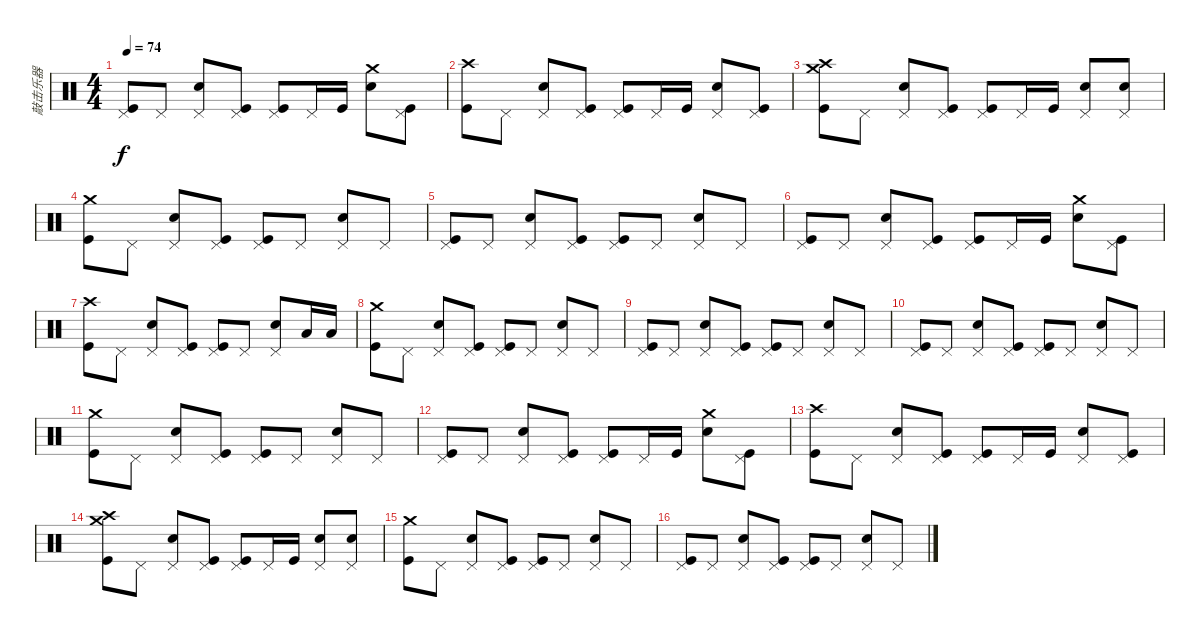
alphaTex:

\track ("敲击乐器" "敲击乐器") {instrument percussion}
\staff {score}
\articulation defaults
\ts (4 4)
\tempo 74
\clef neutral
\ks c
("Pedal Hi-Hat (hit)" "Kick (hit)").8{dy f} "Pedal Hi-Hat (hit)".8 ("Pedal Hi-Hat (hit)" "Snare (hit) 2").8 ("Pedal Hi-Hat (hit)" "Kick (hit)").8 ("Pedal Hi-Hat (hit)" "Kick (hit)").8 "Pedal Hi-Hat (hit)".16 "Kick (hit)".16 ("Crash medium (hit)" "Snare (hit) 2").8 ("Pedal Hi-Hat (hit)" "Kick (hit)").8 |
("Crash high (hit)" "Kick (hit)").8 "Pedal Hi-Hat (hit)".8 ("Pedal Hi-Hat (hit)" "Snare (hit) 2").8 ("Pedal Hi-Hat (hit)" "Kick (hit)").8 ("Pedal Hi-Hat (hit)" "Kick (hit)").8 "Pedal Hi-Hat (hit)".16 "Kick (hit)".16 ("Pedal Hi-Hat (hit)" "Snare (hit) 2").8 ("Pedal Hi-Hat (hit)" "Kick (hit)").8 |
("Crash medium (hit)" "Crash high (hit)" "Kick (hit)").8 "Pedal Hi-Hat (hit)".8 ("Pedal Hi-Hat (hit)" "Snare (hit) 2").8 ("Pedal Hi-Hat (hit)" "Kick (hit)").8 ("Pedal Hi-Hat (hit)" "Kick (hit)").8 "Pedal Hi-Hat (hit)".16 "Kick (hit)".16 ("Pedal Hi-Hat (hit)" "Snare (hit) 2").8 ("Pedal Hi-Hat (hit)" "Snare (hit) 2").8 |
("Crash medium (hit)" "Kick (hit)").8 "Pedal Hi-Hat (hit)".8 ("Pedal Hi-Hat (hit)" "Snare (hit) 2").8 ("Pedal Hi-Hat (hit)" "Kick (hit)").8 ("Pedal Hi-Hat (hit)" "Kick (hit)").8 "Pedal Hi-Hat (hit)".8 ("Pedal Hi-Hat (hit)" "Snare (hit) 2").8 "Pedal Hi-Hat (hit)".8 |
("Pedal Hi-Hat (hit)" "Kick (hit)").8 "Pedal Hi-Hat (hit)".8 ("Pedal Hi-Hat (hit)" "Snare (hit) 2").8 ("Pedal Hi-Hat (hit)" "Kick (hit)").8 ("Pedal Hi-Hat (hit)" "Kick (hit)").8 "Pedal Hi-Hat (hit)".8 ("Pedal Hi-Hat (hit)" "Snare (hit) 2").8 "Pedal Hi-Hat (hit)".8 |
("Pedal Hi-Hat (hit)" "Kick (hit)").8 "Pedal Hi-Hat (hit)".8 ("Pedal Hi-Hat (hit)" "Snare (hit) 2").8 ("Pedal Hi-Hat (hit)" "Kick (hit)").8 ("Pedal Hi-Hat (hit)" "Kick (hit)").8 "Pedal Hi-Hat (hit)".16 "Kick (hit)".16 ("Crash medium (hit)" "Snare (hit) 2").8 ("Pedal Hi-Hat (hit)" "Kick (hit)").8 |
("Crash high (hit)" "Kick (hit)").8 "Pedal Hi-Hat (hit)".8 ("Pedal Hi-Hat (hit)" "Snare (hit) 2").8 ("Pedal Hi-Hat (hit)" "Kick (hit)").8 ("Pedal Hi-Hat (hit)" "Kick (hit)").8 "Pedal Hi-Hat (hit)".8 ("Pedal Hi-Hat (hit)" "Snare (hit) 2").8 "Low Tom (hit)".16 "Low Tom (hit)".16 |
("Crash medium (hit)" "Kick (hit)").8 "Pedal Hi-Hat (hit)".8 ("Pedal Hi-Hat (hit)" "Snare (hit) 2").8 ("Pedal Hi-Hat (hit)" "Kick (hit)").8 ("Pedal Hi-Hat (hit)" "Kick (hit)").8 "Pedal Hi-Hat (hit)".8 ("Pedal Hi-Hat (hit)" "Snare (hit) 2").8 "Pedal Hi-Hat (hit)".8 |
("Pedal Hi-Hat (hit)" "Kick (hit)").8 "Pedal Hi-Hat (hit)".8 ("Pedal Hi-Hat (hit)" "Snare (hit) 2").8 ("Pedal Hi-Hat (hit)" "Kick (hit)").8 ("Pedal Hi-Hat (hit)" "Kick (hit)").8 "Pedal Hi-Hat (hit)".8 ("Pedal Hi-Hat (hit)" "Snare (hit) 2").8 "Pedal Hi-Hat (hit)".8 |
("Pedal Hi-Hat (hit)" "Kick (hit)").8 "Pedal Hi-Hat (hit)".8 ("Pedal Hi-Hat (hit)" "Snare (hit) 2").8 ("Pedal Hi-Hat (hit)" "Kick (hit)").8 ("Pedal Hi-Hat (hit)" "Kick (hit)").8 "Pedal Hi-Hat (hit)".8 ("Pedal Hi-Hat (hit)" "Snare (hit) 2").8 "Pedal Hi-Hat (hit)".8 |
("Crash medium (hit)" "Kick (hit)").8 "Pedal Hi-Hat (hit)".8 ("Pedal Hi-Hat (hit)" "Snare (hit) 2").8 ("Pedal Hi-Hat (hit)" "Kick (hit)").8 ("Pedal Hi-Hat (hit)" "Kick (hit)").8 "Pedal Hi-Hat (hit)".8 ("Pedal Hi-Hat (hit)" "Snare (hit) 2").8 "Pedal Hi-Hat (hit)".8 |
("Pedal Hi-Hat (hit)" "Kick (hit)").8 "Pedal Hi-Hat (hit)".8 ("Pedal Hi-Hat (hit)" "Snare (hit) 2").8 ("Pedal Hi-Hat (hit)" "Kick (hit)").8 ("Pedal Hi-Hat (hit)" "Kick (hit)").8 "Pedal Hi-Hat (hit)".16 "Kick (hit)".16 ("Crash medium (hit)" "Snare (hit) 2").8 ("Pedal Hi-Hat (hit)" "Kick (hit)").8 |
("Crash high (hit)" "Kick (hit)").8 "Pedal Hi-Hat (hit)".8 ("Pedal Hi-Hat (hit)" "Snare (hit) 2").8 ("Pedal Hi-Hat (hit)" "Kick (hit)").8 ("Pedal Hi-Hat (hit)" "Kick (hit)").8 "Pedal Hi-Hat (hit)".16 "Kick (hit)".16 ("Pedal Hi-Hat (hit)" "Snare (hit) 2").8 ("Pedal Hi-Hat (hit)" "Kick (hit)").8 |
("Crash medium (hit)" "Crash high (hit)" "Kick (hit)").8 "Pedal Hi-Hat (hit)".8 ("Pedal Hi-Hat (hit)" "Snare (hit) 2").8 ("Pedal Hi-Hat (hit)" "Kick (hit)").8 ("Pedal Hi-Hat (hit)" "Kick (hit)").8 "Pedal Hi-Hat (hit)".16 "Kick (hit)".16 ("Pedal Hi-Hat (hit)" "Snare (hit) 2").8 ("Pedal Hi-Hat (hit)" "Snare (hit) 2").8 |
("Crash medium (hit)" "Kick (hit)").8 "Pedal Hi-Hat (hit)".8 ("Pedal Hi-Hat (hit)" "Snare (hit) 2").8 ("Pedal Hi-Hat (hit)" "Kick (hit)").8 ("Pedal Hi-Hat (hit)" "Kick (hit)").8 "Pedal Hi-Hat (hit)".8 ("Pedal Hi-Hat (hit)" "Snare (hit) 2").8 "Pedal Hi-Hat (hit)".8 |
("Pedal Hi-Hat (hit)" "Kick (hit)").8 "Pedal Hi-Hat (hit)".8 ("Pedal Hi-Hat (hit)" "Snare (hit) 2").8 ("Pedal Hi-Hat (hit)" "Kick (hit)").8 ("Pedal Hi-Hat (hit)" "Kick (hit)").8 "Pedal Hi-Hat (hit)".8 ("Pedal Hi-Hat (hit)" "Snare (hit) 2").8 "Pedal Hi-Hat (hit)".8
